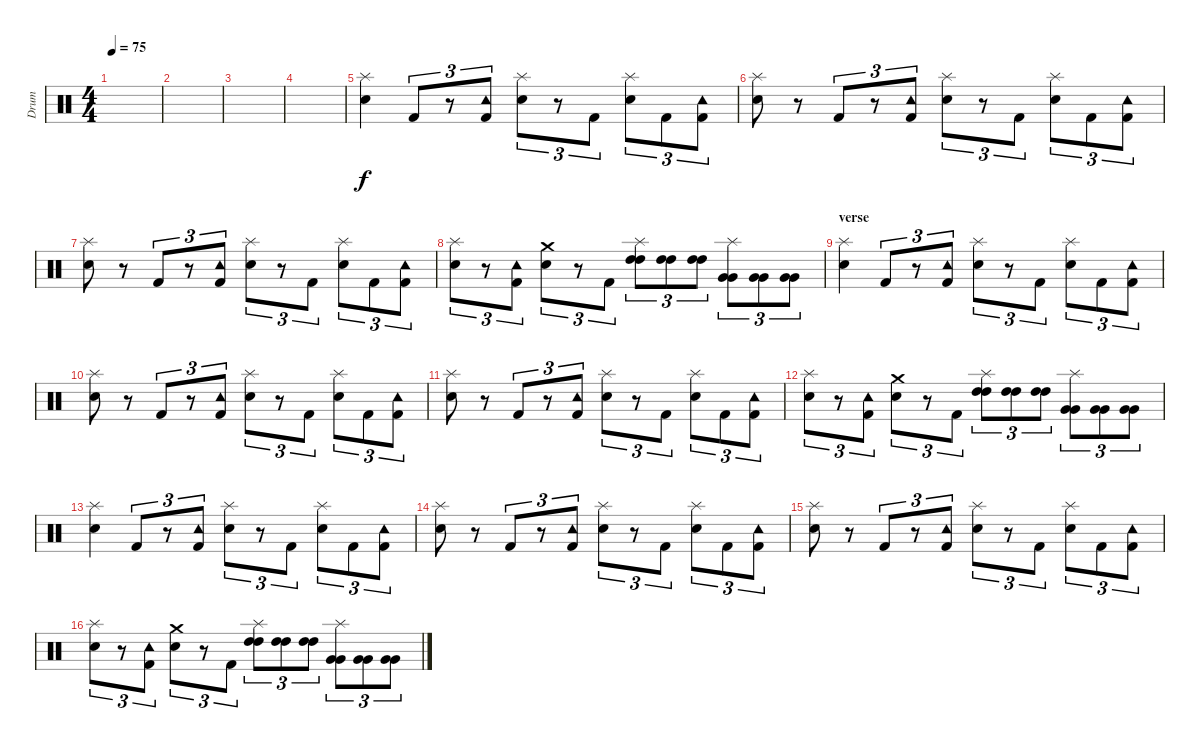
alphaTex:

\track ("Drum" "Drum") {instrument percussion}
\staff {score}
\articulation defaults
\ts (4 4)
\tempo 75
\clef neutral
\ks c
|
|
|
|
("Electric Snare (hit)" "Splash (hit)").4 "Kick (hit) 2".8{tu (3 2)} r.8{tu (3 2)} ("Kick (hit) 2" "Tambourine (hit)").8{tu (3 2)} ("Electric Snare (hit)" "Splash (hit)").8{tu (3 2)} r.8{tu (3 2)} "Kick (hit) 2".8{tu (3 2)} ("Splash (hit)" "Electric Snare (hit)").8{tu (3 2)} "Kick (hit) 2".8{tu (3 2)} ("Kick (hit) 2" "Tambourine (hit)").8{tu (3 2)} |
("Electric Snare (hit)" "Splash (hit)").8 r.8 "Kick (hit) 2".8{tu (3 2)} r.8{tu (3 2)} ("Kick (hit) 2" "Tambourine (hit)").8{tu (3 2)} ("Electric Snare (hit)" "Splash (hit)").8{tu (3 2)} r.8{tu (3 2)} "Kick (hit) 2".8{tu (3 2)} ("Splash (hit)" "Electric Snare (hit)").8{tu (3 2)} "Kick (hit) 2".8{tu (3 2)} ("Kick (hit) 2" "Tambourine (hit)").8{tu (3 2)} |
("Electric Snare (hit)" "Splash (hit)").8 r.8 "Kick (hit) 2".8{tu (3 2)} r.8{tu (3 2)} ("Kick (hit) 2" "Tambourine (hit)").8{tu (3 2)} ("Electric Snare (hit)" "Splash (hit)").8{tu (3 2)} r.8{tu (3 2)} "Kick (hit) 2".8{tu (3 2)} ("Splash (hit)" "Electric Snare (hit)").8{tu (3 2)} "Kick (hit) 2".8{tu (3 2)} ("Kick (hit) 2" "Tambourine (hit)").8{tu (3 2)} |
("Splash (hit)" "Electric Snare (hit)").8{tu (3 2)} r.8{tu (3 2)} ("Kick (hit) 2" "Tambourine (hit)").8{tu (3 2)} ("Crash medium (hit)" "Electric Snare (hit)").8{tu (3 2)} r.8{tu (3 2)} "Kick (hit) 2".8{tu (3 2)} ("Splash (hit)" "High Tom (hit)" "High Tom (hit)").8{tu (3 2) balance 14} ("High Tom (hit)" "High Tom (hit)").8{tu (3 2)} ("High Tom (hit)" "High Tom (hit)").8{tu (3 2)} ("Splash (hit)" "Very Low Tom (hit)" "Very Low Tom (hit)").8{tu (3 2) balance 2} ("Very Low Tom (hit)" "Very Low Tom (hit)").8{tu (3 2)} ("Very Low Tom (hit)" "Very Low Tom (hit)").8{tu (3 2)} |
\section ("" "verse")
("Electric Snare (hit)" "Splash (hit)").4{balance 8} "Kick (hit) 2".8{tu (3 2)} r.8{tu (3 2)} ("Kick (hit) 2" "Tambourine (hit)").8{tu (3 2)} ("Electric Snare (hit)" "Splash (hit)").8{tu (3 2)} r.8{tu (3 2)} "Kick (hit) 2".8{tu (3 2)} ("Splash (hit)" "Electric Snare (hit)").8{tu (3 2)} "Kick (hit) 2".8{tu (3 2)} ("Kick (hit) 2" "Tambourine (hit)").8{tu (3 2)} |
("Electric Snare (hit)" "Splash (hit)").8 r.8 "Kick (hit) 2".8{tu (3 2)} r.8{tu (3 2)} ("Kick (hit) 2" "Tambourine (hit)").8{tu (3 2)} ("Electric Snare (hit)" "Splash (hit)").8{tu (3 2)} r.8{tu (3 2)} "Kick (hit) 2".8{tu (3 2)} ("Splash (hit)" "Electric Snare (hit)").8{tu (3 2)} "Kick (hit) 2".8{tu (3 2)} ("Kick (hit) 2" "Tambourine (hit)").8{tu (3 2)} |
("Electric Snare (hit)" "Splash (hit)").8 r.8 "Kick (hit) 2".8{tu (3 2)} r.8{tu (3 2)} ("Kick (hit) 2" "Tambourine (hit)").8{tu (3 2)} ("Electric Snare (hit)" "Splash (hit)").8{tu (3 2)} r.8{tu (3 2)} "Kick (hit) 2".8{tu (3 2)} ("Splash (hit)" "Electric Snare (hit)").8{tu (3 2)} "Kick (hit) 2".8{tu (3 2)} ("Kick (hit) 2" "Tambourine (hit)").8{tu (3 2)} |
("Splash (hit)" "Electric Snare (hit)").8{tu (3 2)} r.8{tu (3 2)} ("Kick (hit) 2" "Tambourine (hit)").8{tu (3 2)} ("Crash medium (hit)" "Electric Snare (hit)").8{tu (3 2)} r.8{tu (3 2)} "Kick (hit) 2".8{tu (3 2)} ("Splash (hit)" "High Tom (hit)" "High Tom (hit)").8{tu (3 2) balance 14} ("High Tom (hit)" "High Tom (hit)").8{tu (3 2)} ("High Tom (hit)" "High Tom (hit)").8{tu (3 2)} ("Splash (hit)" "Very Low Tom (hit)" "Very Low Tom (hit)").8{tu (3 2) balance 2} ("Very Low Tom (hit)" "Very Low Tom (hit)").8{tu (3 2)} ("Very Low Tom (hit)" "Very Low Tom (hit)").8{tu (3 2)} |
("Electric Snare (hit)" "Splash (hit)").4{balance 8} "Kick (hit) 2".8{tu (3 2)} r.8{tu (3 2)} ("Kick (hit) 2" "Tambourine (hit)").8{tu (3 2)} ("Electric Snare (hit)" "Splash (hit)").8{tu (3 2)} r.8{tu (3 2)} "Kick (hit) 2".8{tu (3 2)} ("Splash (hit)" "Electric Snare (hit)").8{tu (3 2)} "Kick (hit) 2".8{tu (3 2)} ("Kick (hit) 2" "Tambourine (hit)").8{tu (3 2)} |
("Electric Snare (hit)" "Splash (hit)").8 r.8 "Kick (hit) 2".8{tu (3 2)} r.8{tu (3 2)} ("Kick (hit) 2" "Tambourine (hit)").8{tu (3 2)} ("Electric Snare (hit)" "Splash (hit)").8{tu (3 2)} r.8{tu (3 2)} "Kick (hit) 2".8{tu (3 2)} ("Splash (hit)" "Electric Snare (hit)").8{tu (3 2)} "Kick (hit) 2".8{tu (3 2)} ("Kick (hit) 2" "Tambourine (hit)").8{tu (3 2)} |
("Electric Snare (hit)" "Splash (hit)").8 r.8 "Kick (hit) 2".8{tu (3 2)} r.8{tu (3 2)} ("Kick (hit) 2" "Tambourine (hit)").8{tu (3 2)} ("Electric Snare (hit)" "Splash (hit)").8{tu (3 2)} r.8{tu (3 2)} "Kick (hit) 2".8{tu (3 2)} ("Splash (hit)" "Electric Snare (hit)").8{tu (3 2)} "Kick (hit) 2".8{tu (3 2)} ("Kick (hit) 2" "Tambourine (hit)").8{tu (3 2)} |
("Splash (hit)" "Electric Snare (hit)").8{tu (3 2)} r.8{tu (3 2)} ("Kick (hit) 2" "Tambourine (hit)").8{tu (3 2)} ("Crash medium (hit)" "Electric Snare (hit)").8{tu (3 2)} r.8{tu (3 2)} "Kick (hit) 2".8{tu (3 2)} ("Splash (hit)" "High Tom (hit)" "High Tom (hit)").8{tu (3 2) balance 14} ("High Tom (hit)" "High Tom (hit)").8{tu (3 2)} ("High Tom (hit)" "High Tom (hit)").8{tu (3 2)} ("Splash (hit)" "Very Low Tom (hit)" "Very Low Tom (hit)").8{tu (3 2) balance 2} ("Very Low Tom (hit)" "Very Low Tom (hit)").8{tu (3 2)} ("Very Low Tom (hit)" "Very Low Tom (hit)").8{tu (3 2)}
